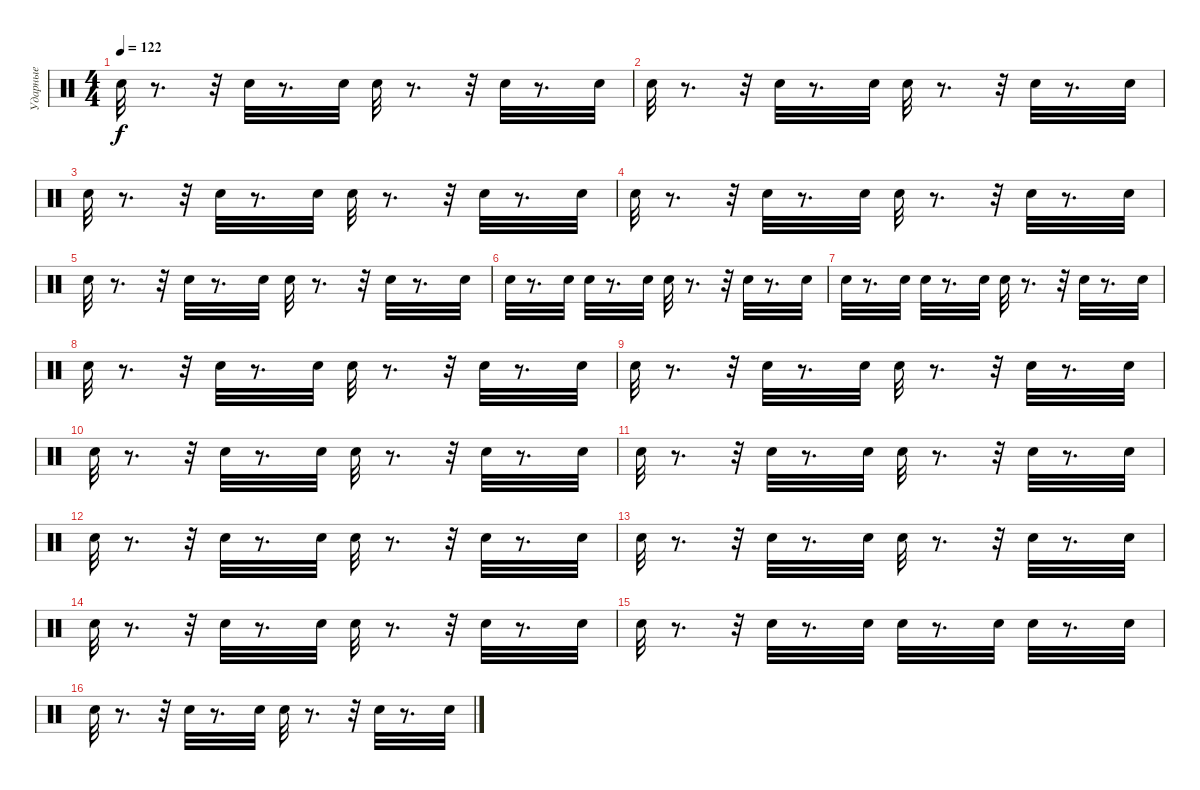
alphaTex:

\track ("Ударные" "Ударные") {instrument percussion}
\staff {score}
\articulation defaults
\ts (4 4)
\tempo 122
\clef neutral
\ks c "Snare (hit) 2".32{dy f}
r.8{d} r.32 "Snare (hit) 2".32 r.8{d} "Snare (hit) 2".32 "Snare (hit) 2".32 r.8{d} r.32 "Snare (hit) 2".32 r.8{d} "Snare (hit) 2".32 |
"Snare (hit) 2".32 r.8{d} r.32 "Snare (hit) 2".32 r.8{d} "Snare (hit) 2".32 "Snare (hit) 2".32 r.8{d} r.32 "Snare (hit) 2".32 r.8{d} "Snare (hit) 2".32 |
"Snare (hit) 2".32 r.8{d} r.32 "Snare (hit) 2".32 r.8{d} "Snare (hit) 2".32 "Snare (hit) 2".32 r.8{d} r.32 "Snare (hit) 2".32 r.8{d} "Snare (hit) 2".32 |
"Snare (hit) 2".32 r.8{d} r.32 "Snare (hit) 2".32 r.8{d} "Snare (hit) 2".32 "Snare (hit) 2".32 r.8{d} r.32 "Snare (hit) 2".32 r.8{d} "Snare (hit) 2".32 |
"Snare (hit) 2".32 r.8{d} r.32 "Snare (hit) 2".32 r.8{d} "Snare (hit) 2".32 "Snare (hit) 2".32 r.8{d} r.32 "Snare (hit) 2".32 r.8{d} "Snare (hit) 2".32 |
"Snare (hit) 2".32 r.8{d} "Snare (hit) 2".32 "Snare (hit) 2".32 r.8{d} "Snare (hit) 2".32 "Snare (hit) 2".32 r.8{d} r.32 "Snare (hit) 2".32 r.8{d} "Snare (hit) 2".32 |
"Snare (hit) 2".32 r.8{d} "Snare (hit) 2".32 "Snare (hit) 2".32 r.8{d} "Snare (hit) 2".32 "Snare (hit) 2".32 r.8{d} r.32 "Snare (hit) 2".32 r.8{d} "Snare (hit) 2".32 |
"Snare (hit) 2".32 r.8{d} r.32 "Snare (hit) 2".32 r.8{d} "Snare (hit) 2".32 "Snare (hit) 2".32 r.8{d} r.32 "Snare (hit) 2".32 r.8{d} "Snare (hit) 2".32 |
"Snare (hit) 2".32 r.8{d} r.32 "Snare (hit) 2".32 r.8{d} "Snare (hit) 2".32 "Snare (hit) 2".32 r.8{d} r.32 "Snare (hit) 2".32 r.8{d} "Snare (hit) 2".32 |
"Snare (hit) 2".32 r.8{d} r.32 "Snare (hit) 2".32 r.8{d} "Snare (hit) 2".32 "Snare (hit) 2".32 r.8{d} r.32 "Snare (hit) 2".32 r.8{d} "Snare (hit) 2".32 |
"Snare (hit) 2".32 r.8{d} r.32 "Snare (hit) 2".32 r.8{d} "Snare (hit) 2".32 "Snare (hit) 2".32 r.8{d} r.32 "Snare (hit) 2".32 r.8{d} "Snare (hit) 2".32 |
"Snare (hit) 2".32 r.8{d} r.32 "Snare (hit) 2".32 r.8{d} "Snare (hit) 2".32 "Snare (hit) 2".32 r.8{d} r.32 "Snare (hit) 2".32 r.8{d} "Snare (hit) 2".32 |
"Snare (hit) 2".32 r.8{d} r.32 "Snare (hit) 2".32 r.8{d} "Snare (hit) 2".32 "Snare (hit) 2".32 r.8{d} r.32 "Snare (hit) 2".32 r.8{d} "Snare (hit) 2".32 |
"Snare (hit) 2".32 r.8{d} r.32 "Snare (hit) 2".32 r.8{d} "Snare (hit) 2".32 "Snare (hit) 2".32 r.8{d} r.32 "Snare (hit) 2".32 r.8{d} "Snare (hit) 2".32 |
"Snare (hit) 2".32 r.8{d} r.32 "Snare (hit) 2".32 r.8{d} "Snare (hit) 2".32 "Snare (hit) 2".32 r.8{d} "Snare (hit) 2".32 "Snare (hit) 2".32 r.8{d} "Snare (hit) 2".32 |
"Snare (hit) 2".32 r.8{d} r.32 "Snare (hit) 2".32 r.8{d} "Snare (hit) 2".32 "Snare (hit) 2".32 r.8{d} r.32 "Snare (hit) 2".32 r.8{d} "Snare (hit) 2".32
